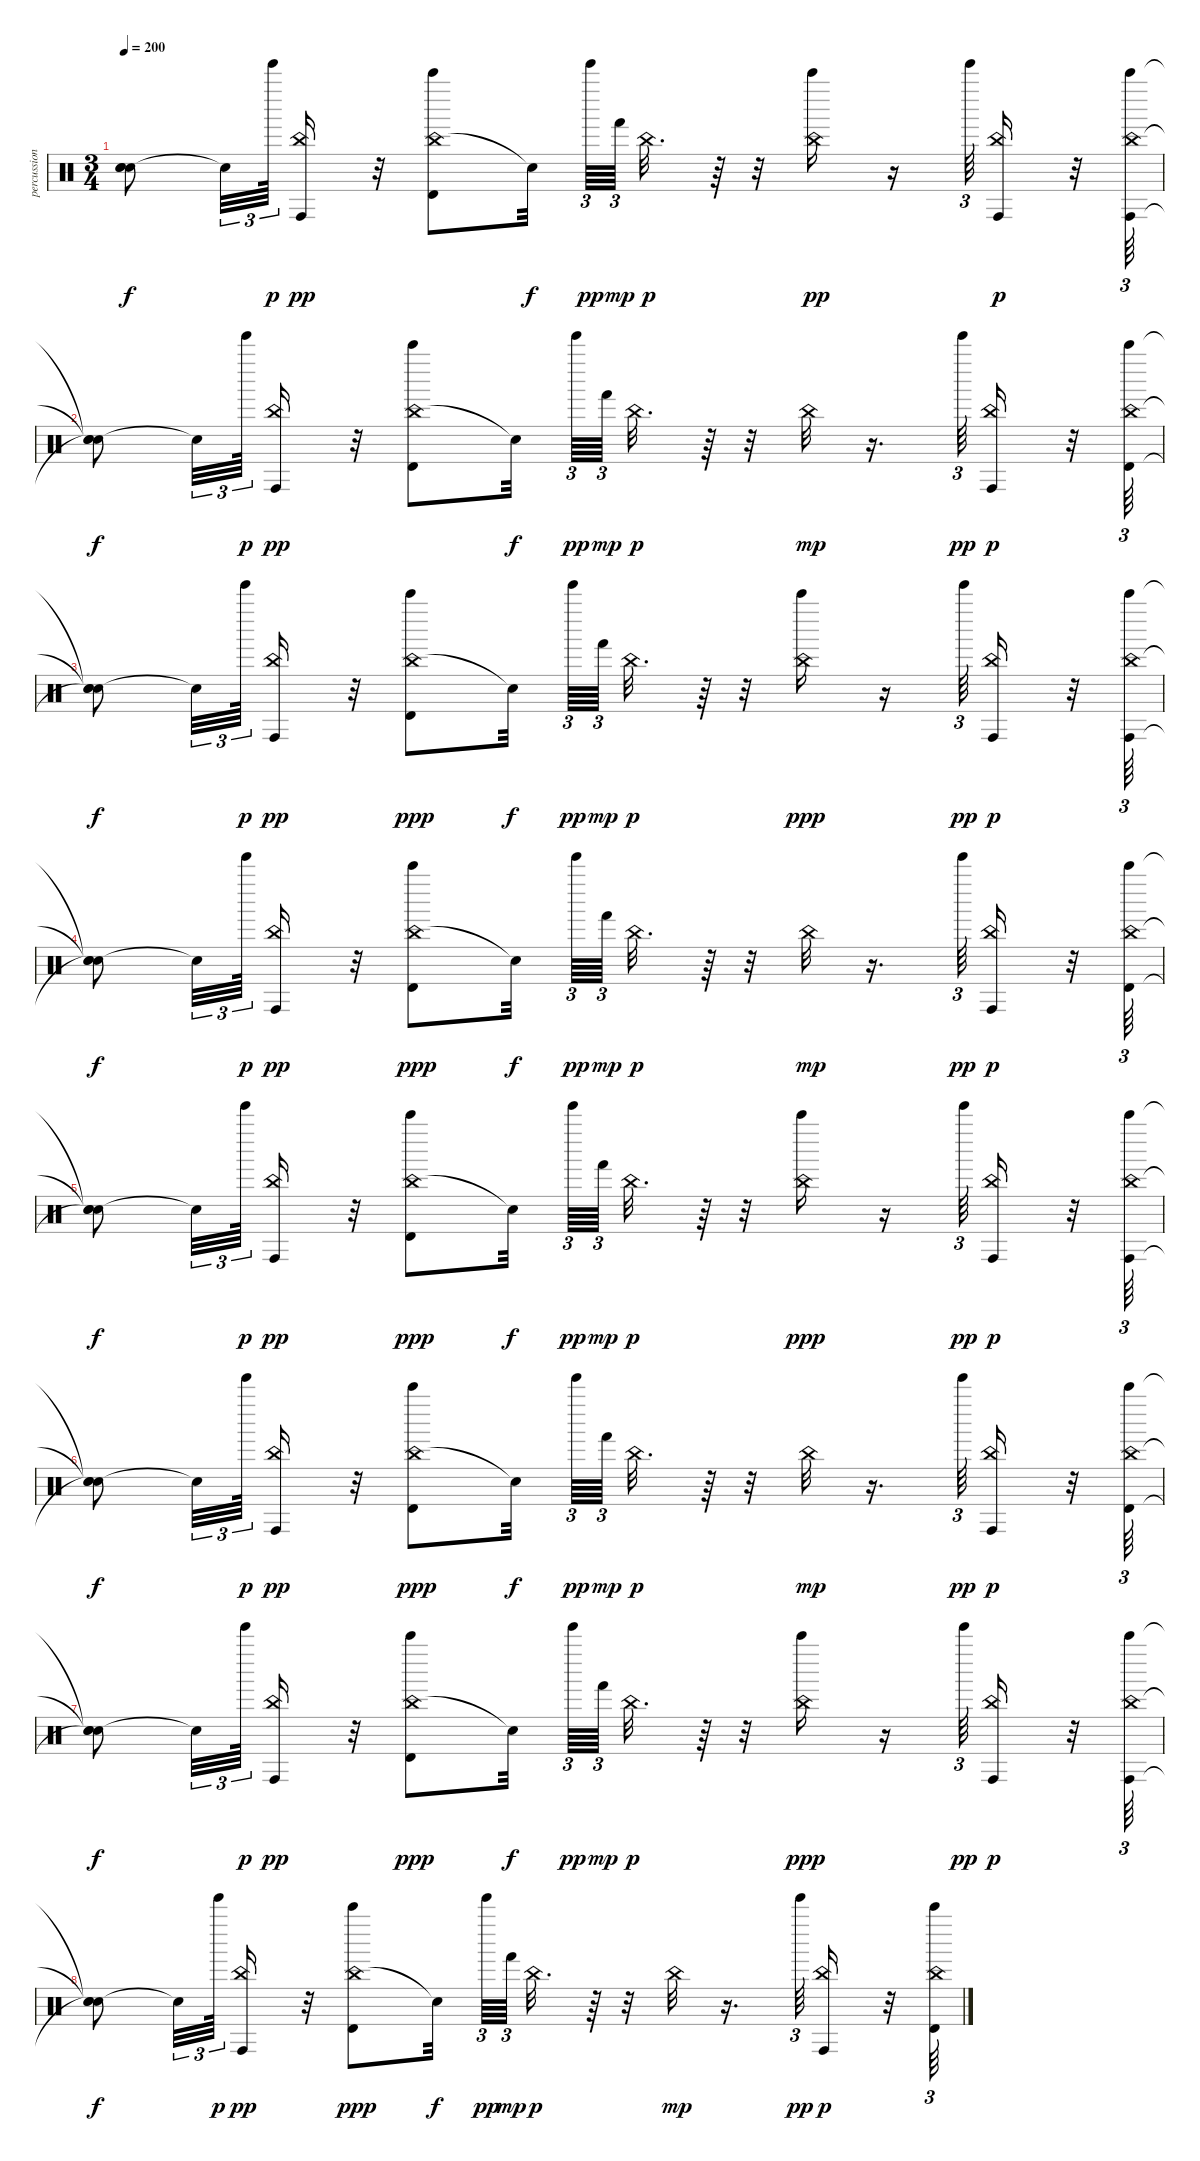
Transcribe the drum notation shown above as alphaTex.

\track ("percussion" "percussion") {instrument percussion}
\staff {score}
\articulation defaults
\ts (3 4)
\tempo 200
\clef neutral
\ks c
("Snare (hit)"{t} "Snare (hit)"{t} "Snare (hit)"{t}).8{dy f} "Snare (hit)"{t}.32{tu (3 2)} "Tinkle Bell (hit)".64{tu (3 2) dy p} ("Conga high (hit)" "China (hit)").16{dy pp} r.32 ("China (hit)" "Timbale high (hit)" "Bell Tree (hit)").8 "Snare (hit)"{t}.32{dy f} "Tinkle Bell (hit)".64{tu (3 2) dy pp} "Hand (hit)".64{tu (3 2) dy mp} "China (hit)".32{d dy p} r.64 r.32 ("China (hit)" "Bell Tree (hit)").16{dy pp} r.16 "Tinkle Bell (hit)".64{tu (3 2)} ("Conga high (hit)" "China (hit)").16{dy p} r.32 ("China (hit)" "Conga high (hit)" "Bell Tree (hit)").64{tu (3 2)} |
("Snare (hit)"{t} "Snare (hit)"{t} "Snare (hit)"{t}).8{dy f} "Snare (hit)"{t}.32{tu (3 2)} "Tinkle Bell (hit)".64{tu (3 2) dy p} ("Conga high (hit)" "China (hit)").16{dy pp} r.32 ("China (hit)" "Timbale high (hit)" "Bell Tree (hit)").8 "Snare (hit)"{t}.32{dy f} "Tinkle Bell (hit)".64{tu (3 2) dy pp} "Hand (hit)".64{tu (3 2) dy mp} "China (hit)".32{d dy p} r.64 r.32 "China (hit)".32{dy mp} r.16{d} "Tinkle Bell (hit)".64{tu (3 2) dy pp} ("Conga high (hit)" "China (hit)").16{dy p} r.32 ("China (hit)" "Timbale high (hit)" "Bell Tree (hit)").64{tu (3 2)} |
("Snare (hit)"{t} "Snare (hit)"{t} "Snare (hit)"{t}).8{dy f} "Snare (hit)"{t}.32{tu (3 2)} "Tinkle Bell (hit)".64{tu (3 2) dy p} ("Conga high (hit)" "China (hit)").16{dy pp} r.32 ("China (hit)" "Timbale high (hit)" "Bell Tree (hit)").8{dy ppp} "Snare (hit)"{t}.32{dy f} "Tinkle Bell (hit)".64{tu (3 2) dy pp} "Hand (hit)".64{tu (3 2) dy mp} "China (hit)".32{d dy p} r.64 r.32 ("China (hit)" "Bell Tree (hit)").16{dy ppp} r.16 "Tinkle Bell (hit)".64{tu (3 2) dy pp} ("Conga high (hit)" "China (hit)").16{dy p} r.32 ("China (hit)" "Conga high (hit)" "Bell Tree (hit)").64{tu (3 2)} |
("Snare (hit)"{t} "Snare (hit)"{t} "Snare (hit)"{t}).8{dy f} "Snare (hit)"{t}.32{tu (3 2)} "Tinkle Bell (hit)".64{tu (3 2) dy p} ("Conga high (hit)" "China (hit)").16{dy pp} r.32 ("China (hit)" "Timbale high (hit)" "Bell Tree (hit)").8{dy ppp} "Snare (hit)"{t}.32{dy f} "Tinkle Bell (hit)".64{tu (3 2) dy pp} "Hand (hit)".64{tu (3 2) dy mp} "China (hit)".32{d dy p} r.64 r.32 "China (hit)".32{dy mp} r.16{d} "Tinkle Bell (hit)".64{tu (3 2) dy pp} ("Conga high (hit)" "China (hit)").16{dy p} r.32 ("China (hit)" "Timbale high (hit)" "Bell Tree (hit)").64{tu (3 2)} |
("Snare (hit)"{t} "Snare (hit)"{t} "Snare (hit)"{t}).8{dy f} "Snare (hit)"{t}.32{tu (3 2)} "Tinkle Bell (hit)".64{tu (3 2) dy p} ("Conga high (hit)" "China (hit)").16{dy pp} r.32 ("China (hit)" "Timbale high (hit)" "Bell Tree (hit)").8{dy ppp} "Snare (hit)"{t}.32{dy f} "Tinkle Bell (hit)".64{tu (3 2) dy pp} "Hand (hit)".64{tu (3 2) dy mp} "China (hit)".32{d dy p} r.64 r.32 ("China (hit)" "Bell Tree (hit)").16{dy ppp} r.16 "Tinkle Bell (hit)".64{tu (3 2) dy pp} ("Conga high (hit)" "China (hit)").16{dy p} r.32 ("China (hit)" "Conga high (hit)" "Bell Tree (hit)").64{tu (3 2)} |
("Snare (hit)"{t} "Snare (hit)"{t} "Snare (hit)"{t}).8{dy f} "Snare (hit)"{t}.32{tu (3 2)} "Tinkle Bell (hit)".64{tu (3 2) dy p} ("Conga high (hit)" "China (hit)").16{dy pp} r.32 ("China (hit)" "Timbale high (hit)" "Bell Tree (hit)").8{dy ppp} "Snare (hit)"{t}.32{dy f} "Tinkle Bell (hit)".64{tu (3 2) dy pp} "Hand (hit)".64{tu (3 2) dy mp} "China (hit)".32{d dy p} r.64 r.32 "China (hit)".32{dy mp} r.16{d} "Tinkle Bell (hit)".64{tu (3 2) dy pp} ("Conga high (hit)" "China (hit)").16{dy p} r.32 ("China (hit)" "Timbale high (hit)" "Bell Tree (hit)").64{tu (3 2)} |
("Snare (hit)"{t} "Snare (hit)"{t} "Snare (hit)"{t}).8{dy f} "Snare (hit)"{t}.32{tu (3 2)} "Tinkle Bell (hit)".64{tu (3 2) dy p} ("Conga high (hit)" "China (hit)").16{dy pp} r.32 ("China (hit)" "Timbale high (hit)" "Bell Tree (hit)").8{dy ppp} "Snare (hit)"{t}.32{dy f} "Tinkle Bell (hit)".64{tu (3 2) dy pp} "Hand (hit)".64{tu (3 2) dy mp} "China (hit)".32{d dy p} r.64 r.32 ("China (hit)" "Bell Tree (hit)").16{dy ppp} r.16 "Tinkle Bell (hit)".64{tu (3 2) dy pp} ("Conga high (hit)" "China (hit)").16{dy p} r.32 ("China (hit)" "Conga high (hit)" "Bell Tree (hit)").64{tu (3 2)} |
("Snare (hit)"{t} "Snare (hit)"{t} "Snare (hit)"{t}).8{dy f} "Snare (hit)"{t}.32{tu (3 2)} "Tinkle Bell (hit)".64{tu (3 2) dy p} ("Conga high (hit)" "China (hit)").16{dy pp} r.32 ("China (hit)" "Timbale high (hit)" "Bell Tree (hit)").8{dy ppp} "Snare (hit)"{t}.32{dy f} "Tinkle Bell (hit)".64{tu (3 2) dy pp} "Hand (hit)".64{tu (3 2) dy mp} "China (hit)".32{d dy p} r.64 r.32 "China (hit)".32{dy mp} r.16{d} "Tinkle Bell (hit)".64{tu (3 2) dy pp} ("Conga high (hit)" "China (hit)").16{dy p} r.32 ("China (hit)" "Timbale high (hit)" "Bell Tree (hit)").64{tu (3 2)}
